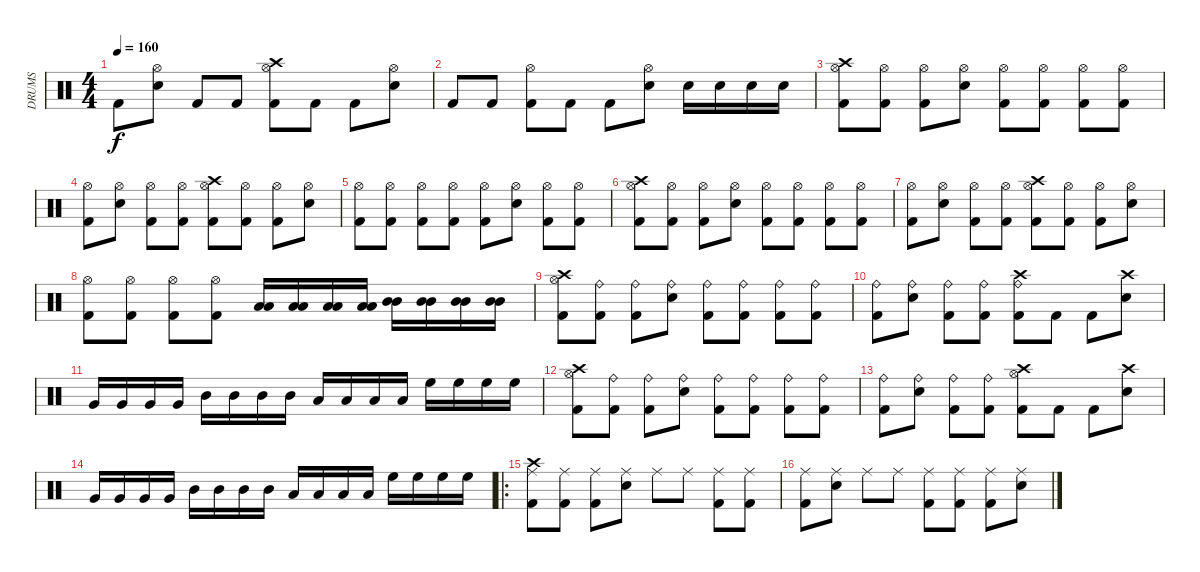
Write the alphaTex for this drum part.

\track ("DRUMS" "DRUMS") {instrument percussion}
\staff {score}
\articulation defaults
\ts (4 4)
\tempo 160
\clef neutral
\ks c "Kick (hit) 2".8{dy f}
("Hi-Hat (open)" "Snare (hit) 2").8 "Kick (hit) 2".8 "Kick (hit) 2".8 ("Crash high (hit)" "Hi-Hat (open)" "Kick (hit) 2").8 "Kick (hit) 2".8 "Kick (hit) 2".8 ("Hi-Hat (open)" "Snare (hit) 2").8 |
"Kick (hit) 2".8 "Kick (hit) 2".8 ("Hi-Hat (open)" "Kick (hit) 2").8 "Kick (hit) 2".8 "Kick (hit) 2".8 ("Hi-Hat (open)" "Snare (hit) 2").8 "Snare (hit) 2".16 "Snare (hit) 2".16 "Snare (hit) 2".16 "Snare (hit) 2".16 |
("Crash high (hit)" "Kick (hit) 2" "Hi-Hat (open)").8 ("Hi-Hat (open)" "Kick (hit) 2").8 ("Hi-Hat (open)" "Kick (hit) 2").8 ("Hi-Hat (open)" "Snare (hit) 2").8 ("Hi-Hat (open)" "Kick (hit) 2").8 ("Hi-Hat (open)" "Kick (hit) 2").8 ("Hi-Hat (open)" "Kick (hit) 2").8 ("Hi-Hat (open)" "Kick (hit) 2").8 |
("Hi-Hat (open)" "Kick (hit) 2").8 ("Hi-Hat (open)" "Snare (hit) 2").8 ("Hi-Hat (open)" "Kick (hit) 2").8 ("Hi-Hat (open)" "Kick (hit) 2").8 ("Crash high (hit)" "Hi-Hat (open)" "Kick (hit) 2").8 ("Hi-Hat (open)" "Kick (hit) 2").8 ("Hi-Hat (open)" "Kick (hit) 2").8 ("Hi-Hat (open)" "Snare (hit) 2").8 |
("Hi-Hat (open)" "Kick (hit) 2").8 ("Hi-Hat (open)" "Kick (hit) 2").8 ("Hi-Hat (open)" "Kick (hit) 2").8 ("Hi-Hat (open)" "Kick (hit) 2").8 ("Hi-Hat (open)" "Kick (hit) 2").8 ("Hi-Hat (open)" "Snare (hit) 2").8 ("Hi-Hat (open)" "Kick (hit) 2").8 ("Hi-Hat (open)" "Kick (hit) 2").8 |
("Crash high (hit)" "Kick (hit) 2" "Hi-Hat (open)").8 ("Hi-Hat (open)" "Kick (hit) 2").8 ("Hi-Hat (open)" "Kick (hit) 2").8 ("Hi-Hat (open)" "Snare (hit) 2").8 ("Hi-Hat (open)" "Kick (hit) 2").8 ("Hi-Hat (open)" "Kick (hit) 2").8 ("Hi-Hat (open)" "Kick (hit) 2").8 ("Hi-Hat (open)" "Kick (hit) 2").8 |
("Hi-Hat (open)" "Kick (hit) 2").8 ("Hi-Hat (open)" "Snare (hit) 2").8 ("Hi-Hat (open)" "Kick (hit) 2").8 ("Hi-Hat (open)" "Kick (hit) 2").8 ("Crash high (hit)" "Hi-Hat (open)" "Kick (hit) 2").8 ("Hi-Hat (open)" "Kick (hit) 2").8 ("Hi-Hat (open)" "Kick (hit) 2").8 ("Hi-Hat (open)" "Snare (hit) 2").8 |
("Hi-Hat (open)" "Kick (hit) 2").8 ("Hi-Hat (open)" "Kick (hit) 2").8 ("Hi-Hat (open)" "Kick (hit) 2").8 ("Hi-Hat (open)" "Kick (hit) 2").8 ("Low Tom (hit)" "Low Tom (hit)").16 ("Low Tom (hit)" "Low Tom (hit)").16 ("Low Tom (hit)" "Low Tom (hit)").16 ("Low Tom (hit)" "Low Tom (hit)").16 ("Mid Tom (hit)" "Mid Tom (hit)").16 ("Mid Tom (hit)" "Mid Tom (hit)").16 ("Mid Tom (hit)" "Mid Tom (hit)").16 ("Mid Tom (hit)" "Mid Tom (hit)").16 |
("Crash high (hit)" "Kick (hit) 2" "Hi-Hat (open)").8 ("Ride (bell)" "Kick (hit) 2").8 ("Ride (bell)" "Kick (hit) 2").8 ("Ride (bell)" "Snare (hit) 2").8 ("Ride (bell)" "Kick (hit) 2").8 ("Ride (bell)" "Kick (hit) 2").8 ("Ride (bell)" "Kick (hit) 2").8 ("Ride (bell)" "Kick (hit) 2").8 |
("Ride (bell)" "Kick (hit) 2").8 ("Ride (bell)" "Snare (hit) 2").8 ("Ride (bell)" "Kick (hit) 2").8 ("Ride (bell)" "Kick (hit) 2").8 ("Crash high (hit)" "Ride (bell)" "Kick (hit) 2").8 "Kick (hit) 2".8 "Kick (hit) 2".8 ("Crash high (hit)" "Snare (hit) 2").8 |
"Very Low Tom (hit)".16 "Very Low Tom (hit)".16 "Very Low Tom (hit)".16 "Very Low Tom (hit)".16 "Mid Tom (hit)".16 "Mid Tom (hit)".16 "Mid Tom (hit)".16 "Mid Tom (hit)".16 "Low Tom (hit)".16 "Low Tom (hit)".16 "Low Tom (hit)".16 "Low Tom (hit)".16 "High Floor Tom (hit)".16 "High Floor Tom (hit)".16 "High Floor Tom (hit)".16 "High Floor Tom (hit)".16 |
("Crash high (hit)" "Kick (hit) 2" "Hi-Hat (open)").8 ("Ride (bell)" "Kick (hit) 2").8 ("Ride (bell)" "Kick (hit) 2").8 ("Ride (bell)" "Snare (hit) 2").8 ("Ride (bell)" "Kick (hit) 2").8 ("Ride (bell)" "Kick (hit) 2").8 ("Ride (bell)" "Kick (hit) 2").8 ("Ride (bell)" "Kick (hit) 2").8 |
("Ride (bell)" "Kick (hit) 2").8 ("Ride (bell)" "Snare (hit) 2").8 ("Ride (bell)" "Kick (hit) 2").8 ("Ride (bell)" "Kick (hit) 2").8 ("Crash high (hit)" "Hi-Hat (open)" "Kick (hit) 2").8 "Kick (hit) 2".8 "Kick (hit) 2".8 ("Crash high (hit)" "Snare (hit) 2").8 |
"Very Low Tom (hit)".16 "Very Low Tom (hit)".16 "Very Low Tom (hit)".16 "Very Low Tom (hit)".16 "Mid Tom (hit)".16 "Mid Tom (hit)".16 "Mid Tom (hit)".16 "Mid Tom (hit)".16 "Low Tom (hit)".16 "Low Tom (hit)".16 "Low Tom (hit)".16 "Low Tom (hit)".16 "High Floor Tom (hit)".16 "High Floor Tom (hit)".16 "High Floor Tom (hit)".16 "High Floor Tom (hit)".16 |
\ro
("Crash high (hit)" "Kick (hit) 2" "Ride (middle)").8 ("Kick (hit) 2" "Ride (middle)").8 ("Kick (hit) 2" "Ride (middle)").8 ("Snare (hit) 2" "Ride (middle)").8 "Ride (middle)".8 "Ride (middle)".8 ("Kick (hit) 2" "Ride (middle)").8 ("Kick (hit) 2" "Ride (middle)").8 |
("Kick (hit) 2" "Ride (middle)").8 ("Snare (hit) 2" "Ride (middle)").8 "Ride (middle)".8 "Ride (middle)".8 ("Kick (hit) 2" "Ride (middle)").8 ("Kick (hit) 2" "Ride (middle)").8 ("Kick (hit) 2" "Ride (middle)").8 ("Snare (hit) 2" "Ride (middle)").8
